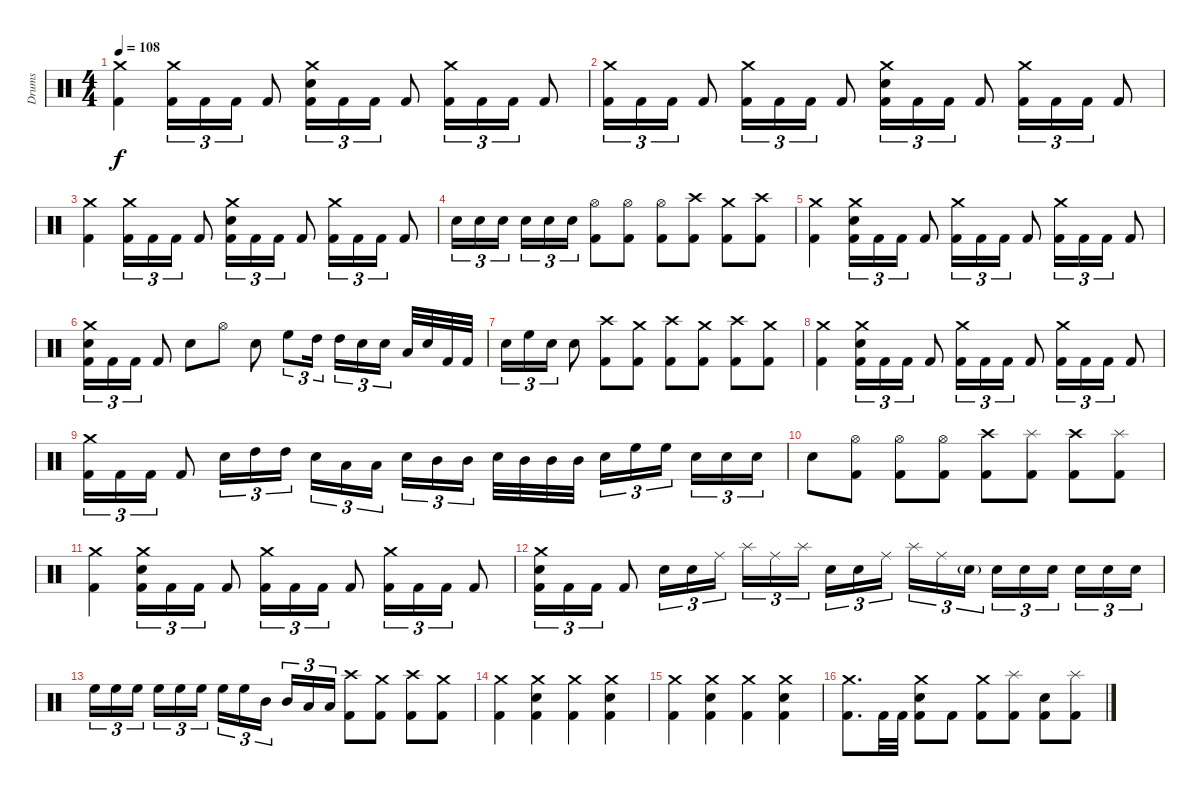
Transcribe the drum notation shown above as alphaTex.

\track ("Drums" "Drums") {instrument percussion}
\staff {score}
\articulation defaults
\ts (4 4)
\tempo 108
\clef neutral
\ks c
("Crash medium (hit)" "Kick (hit) 2").4{dy f} ("Crash medium (hit)" "Kick (hit) 2").16{tu (3 2)} "Kick (hit) 2".16{tu (3 2)} "Kick (hit) 2".16{tu (3 2)} "Kick (hit) 2".8 ("Crash medium (hit)" "Snare (hit) 2" "Kick (hit) 2").16{tu (3 2)} "Kick (hit) 2".16{tu (3 2)} "Kick (hit) 2".16{tu (3 2)} "Kick (hit) 2".8 ("Crash medium (hit)" "Kick (hit) 2").16{tu (3 2)} "Kick (hit) 2".16{tu (3 2)} "Kick (hit) 2".16{tu (3 2)} "Kick (hit) 2".8 |
("Crash medium (hit)" "Kick (hit) 2").16{tu (3 2)} "Kick (hit) 2".16{tu (3 2)} "Kick (hit) 2".16{tu (3 2)} "Kick (hit) 2".8 ("Crash medium (hit)" "Kick (hit) 2").16{tu (3 2)} "Kick (hit) 2".16{tu (3 2)} "Kick (hit) 2".16{tu (3 2)} "Kick (hit) 2".8 ("Crash medium (hit)" "Snare (hit) 2" "Kick (hit) 2").16{tu (3 2)} "Kick (hit) 2".16{tu (3 2)} "Kick (hit) 2".16{tu (3 2)} "Kick (hit) 2".8 ("Crash medium (hit)" "Kick (hit) 2").16{tu (3 2)} "Kick (hit) 2".16{tu (3 2)} "Kick (hit) 2".16{tu (3 2)} "Kick (hit) 2".8 |
("Crash medium (hit)" "Kick (hit) 2").4 ("Crash medium (hit)" "Kick (hit) 2").16{tu (3 2)} "Kick (hit) 2".16{tu (3 2)} "Kick (hit) 2".16{tu (3 2)} "Kick (hit) 2".8 ("Crash medium (hit)" "Snare (hit) 2" "Kick (hit) 2").16{tu (3 2)} "Kick (hit) 2".16{tu (3 2)} "Kick (hit) 2".16{tu (3 2)} "Kick (hit) 2".8 ("Crash medium (hit)" "Kick (hit) 2").16{tu (3 2)} "Kick (hit) 2".16{tu (3 2)} "Kick (hit) 2".16{tu (3 2)} "Kick (hit) 2".8 |
"Snare (hit) 2".16{tu (3 2)} "Snare (hit) 2".16{tu (3 2)} "Snare (hit) 2".16{tu (3 2)} "Snare (hit) 2".16{tu (3 2)} "Snare (hit) 2".16{tu (3 2)} "Snare (hit) 2".16{tu (3 2)} ("Hi-Hat (open)" "Kick (hit) 2").8 ("Hi-Hat (open)" "Kick (hit) 2").8 ("Hi-Hat (open)" "Kick (hit) 2").8 ("Crash high (hit)" "Kick (hit) 2").8 ("Crash medium (hit)" "Kick (hit) 2").8 ("Crash high (hit)" "Kick (hit) 2").8 |
("Crash medium (hit)" "Kick (hit) 2").4 ("Crash medium (hit)" "Snare (hit) 2" "Kick (hit) 2").16{tu (3 2)} "Kick (hit) 2".16{tu (3 2)} "Kick (hit) 2".16{tu (3 2)} "Kick (hit) 2".8 ("Crash medium (hit)" "Kick (hit) 2").16{tu (3 2)} "Kick (hit) 2".16{tu (3 2)} "Kick (hit) 2".16{tu (3 2)} "Kick (hit) 2".8 ("Crash medium (hit)" "Kick (hit) 2").16{tu (3 2)} "Kick (hit) 2".16{tu (3 2)} "Kick (hit) 2".16{tu (3 2)} "Kick (hit) 2".8 |
("Crash medium (hit)" "Snare (hit) 2" "Kick (hit) 2").16{tu (3 2)} "Kick (hit) 2".16{tu (3 2)} "Kick (hit) 2".16{tu (3 2)} "Kick (hit) 2".8 "Snare (hit) 2".8 "Hi-Hat (open)".8 "Snare (hit) 2".8 "High Floor Tom (hit)".8{tu (3 2)} "High Tom (hit)".16{tu (3 2)} "High Tom (hit)".16{tu (3 2)} "Snare (hit) 2".16{tu (3 2)} "Snare (hit) 2".16{tu (3 2)} "Low Tom (hit)".32 "Snare (hit) 2".32 "Kick (hit) 2".32 "Kick (hit) 2".32 |
"Snare (hit) 2".16{tu (3 2)} "High Floor Tom (hit)".16{tu (3 2)} "Snare (hit) 2".16{tu (3 2)} "Snare (hit) 2".8 ("Crash high (hit)" "Kick (hit) 2").8 ("Crash medium (hit)" "Kick (hit) 2").8 ("Crash high (hit)" "Kick (hit) 2").8 ("Crash medium (hit)" "Kick (hit) 2").8 ("Crash high (hit)" "Kick (hit) 2").8 ("Crash medium (hit)" "Kick (hit) 2").8 |
("Crash medium (hit)" "Kick (hit) 2").4 ("Crash medium (hit)" "Snare (hit) 2" "Kick (hit) 2").16{tu (3 2)} "Kick (hit) 2".16{tu (3 2)} "Kick (hit) 2".16{tu (3 2)} "Kick (hit) 2".8 ("Crash medium (hit)" "Kick (hit) 2").16{tu (3 2)} "Kick (hit) 2".16{tu (3 2)} "Kick (hit) 2".16{tu (3 2)} "Kick (hit) 2".8 ("Crash medium (hit)" "Kick (hit) 2").16{tu (3 2)} "Kick (hit) 2".16{tu (3 2)} "Kick (hit) 2".16{tu (3 2)} "Kick (hit) 2".8 |
("Crash medium (hit)" "Kick (hit) 2").16{tu (3 2)} "Kick (hit) 2".16{tu (3 2)} "Kick (hit) 2".16{tu (3 2)} "Kick (hit) 2".8 "Snare (hit) 2".16{tu (3 2)} "High Tom (hit)".16{tu (3 2)} "High Tom (hit)".16{tu (3 2)} "Snare (hit) 2".16{tu (3 2)} "Low Tom (hit)".16{tu (3 2)} "Low Tom (hit)".16{tu (3 2)} "Snare (hit) 2".16{tu (3 2)} "Mid Tom (hit)".16{tu (3 2)} "Mid Tom (hit)".16{tu (3 2)} "Snare (hit) 2".32 "Mid Tom (hit)".32 "Mid Tom (hit)".32 "Mid Tom (hit)".32 "Snare (hit) 2".16{tu (3 2)} "High Floor Tom (hit)".16{tu (3 2)} "High Floor Tom (hit)".16{tu (3 2)} "Snare (hit) 2".16{tu (3 2)} "Snare (hit) 2".16{tu (3 2)} "Snare (hit) 2".16{tu (3 2)} |
"Snare (hit) 2".8 ("Hi-Hat (open)" "Kick (hit) 2").8 ("Hi-Hat (open)" "Kick (hit) 2").8 ("Hi-Hat (open)" "Kick (hit) 2").8 ("Crash high (hit)" "Kick (hit) 2").8 ("Splash (hit)" "Kick (hit) 2").8 ("Crash high (hit)" "Kick (hit) 2").8 ("Splash (hit)" "Kick (hit) 2").8 |
("Crash medium (hit)" "Kick (hit) 2").4 ("Crash medium (hit)" "Snare (hit) 2" "Kick (hit) 2").16{tu (3 2)} "Kick (hit) 2".16{tu (3 2)} "Kick (hit) 2".16{tu (3 2)} "Kick (hit) 2".8 ("Crash medium (hit)" "Kick (hit) 2").16{tu (3 2)} "Kick (hit) 2".16{tu (3 2)} "Kick (hit) 2".16{tu (3 2)} "Kick (hit) 2".8 ("Crash medium (hit)" "Kick (hit) 2").16{tu (3 2)} "Kick (hit) 2".16{tu (3 2)} "Kick (hit) 2".16{tu (3 2)} "Kick (hit) 2".8 |
("Crash medium (hit)" "Snare (hit) 2" "Kick (hit) 2").16{tu (3 2)} "Kick (hit) 2".16{tu (3 2)} "Kick (hit) 2".16{tu (3 2)} "Kick (hit) 2".8 "Snare (hit) 2".16{tu (3 2)} "Snare (hit) 2".16{tu (3 2)} "Ride (middle)".16{tu (3 2)} "Splash (hit)".16{tu (3 2)} "Ride (middle)".16{tu (3 2)} "Splash (hit)".16{tu (3 2)} "Snare (hit) 2".16{tu (3 2)} "Snare (hit) 2".16{tu (3 2)} "Ride (middle)".16{tu (3 2)} "Splash (hit)".16{tu (3 2)} "Ride (middle)".16{tu (3 2)} "Snare (hit) 2"{g}.16{tu (3 2)} "Snare (hit) 2".16{tu (3 2)} "Snare (hit) 2".16{tu (3 2)} "Snare (hit) 2".16{tu (3 2)} "Snare (hit) 2".16{tu (3 2)} "Snare (hit) 2".16{tu (3 2)} "Snare (hit) 2".16{tu (3 2)} |
"High Floor Tom (hit)".16{tu (3 2)} "High Floor Tom (hit)".16{tu (3 2)} "High Floor Tom (hit)".16{tu (3 2)} "High Floor Tom (hit)".16{tu (3 2)} "High Floor Tom (hit)".16{tu (3 2)} "High Floor Tom (hit)".16{tu (3 2)} "High Floor Tom (hit)".16{tu (3 2)} "High Floor Tom (hit)".16{tu (3 2)} "Mid Tom (hit)".16{tu (3 2)} "Mid Tom (hit)".16{tu (3 2)} "Low Tom (hit)".16{tu (3 2)} "Low Tom (hit)".16{tu (3 2)} ("Crash high (hit)" "Kick (hit) 2").8 ("Crash medium (hit)" "Kick (hit) 2").8 ("Crash high (hit)" "Kick (hit) 2").8 ("Crash medium (hit)" "Kick (hit) 2").8 |
("Crash medium (hit)" "Kick (hit) 2").4 ("Crash medium (hit)" "Snare (hit) 2" "Kick (hit) 2").4 ("Crash medium (hit)" "Kick (hit) 2").4 ("Crash medium (hit)" "Snare (hit) 2" "Kick (hit) 2").4 |
("Crash medium (hit)" "Kick (hit) 2").4 ("Crash medium (hit)" "Snare (hit) 2" "Kick (hit) 2").4 ("Crash medium (hit)" "Kick (hit) 2").4 ("Crash medium (hit)" "Snare (hit) 2" "Kick (hit) 2").4 |
("Crash medium (hit)" "Kick (hit) 2").8{d} "Kick (hit) 2".32 "Kick (hit) 2".32 ("Crash medium (hit)" "Snare (hit) 2" "Kick (hit) 2").8 "Kick (hit) 2".8 ("Crash medium (hit)" "Kick (hit) 2").8 ("Splash (hit)" "Kick (hit) 2").8 ("Snare (hit) 2" "Kick (hit) 2").8 ("Splash (hit)" "Kick (hit) 2").8
